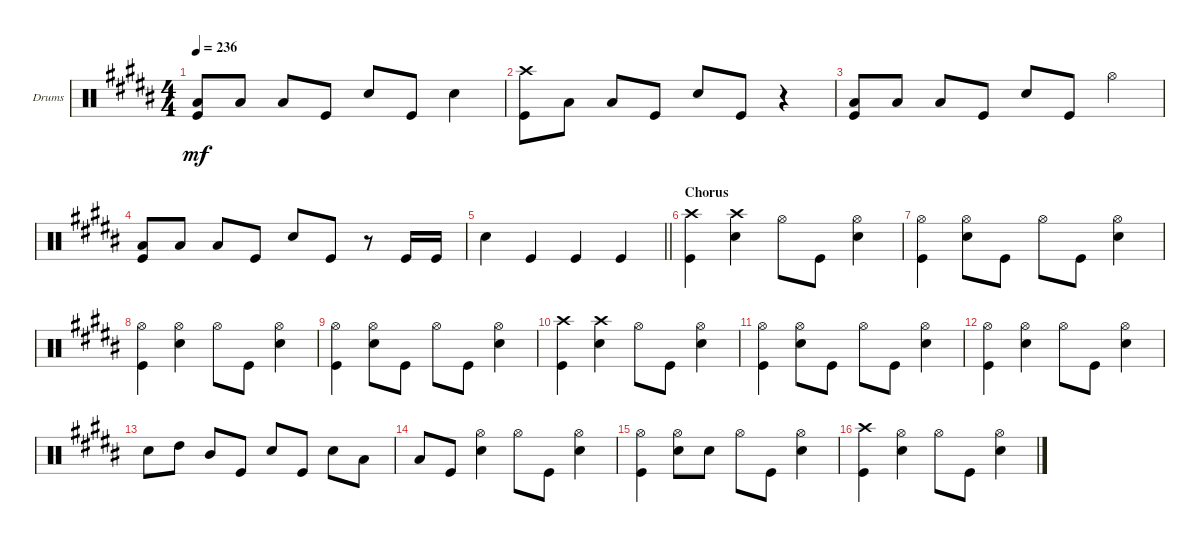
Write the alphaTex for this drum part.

\defaultSystemsLayout 4
\bracketExtendMode groupsimilarinstruments
\firstSystemTrackNameOrientation horizontal
\otherSystemsTrackNameOrientation horizontal
\track ("Drums" "Drums") {instrument percussion}
\staff {score}
\articulation defaults
\ts (4 4)
\tempo 236
\clef neutral
\ks b
("Kick (hit)" "Low Tom (hit)").8{dy mf} "Low Tom (hit)".8 "Low Tom (hit)".8 "Kick (hit)".8 "Snare (hit) 2".8 "Kick (hit)".8 "Snare (hit) 2".4 |
("Kick (hit)" "Crash high (hit)").8 "Low Tom (hit)".8 "Low Tom (hit)".8 "Kick (hit)".8 "Snare (hit) 2".8 "Kick (hit)".8 r.4 |
("Kick (hit)" "Low Tom (hit)").8 "Low Tom (hit)".8 "Low Tom (hit)".8 "Kick (hit)".8 "Snare (hit) 2".8 "Kick (hit)".8 "Hi-Hat (open)".4 |
("Kick (hit)" "Low Tom (hit)").8 "Low Tom (hit)".8 "Low Tom (hit)".8 "Kick (hit)".8 "Snare (hit) 2".8 "Kick (hit)".8 r.8 "Kick (hit)".16 "Kick (hit)".16 |
\barLineRight lightlight "Snare (hit) 2".4 "Kick (hit)".4 "Kick (hit)".4 "Kick (hit)".4
|
\section ("" "Chorus")
("Kick (hit)" "Crash high (hit)").4 ("Crash high (hit)" "Snare (hit) 2").4 "Hi-Hat (open)".8 "Kick (hit)".8 ("Snare (hit) 2" "Hi-Hat (open)").4 |
("Kick (hit)" "Hi-Hat (open)").4 ("Snare (hit) 2" "Hi-Hat (open)").8 "Kick (hit)".8 "Hi-Hat (open)".8 "Kick (hit)".8 ("Snare (hit) 2" "Hi-Hat (open)").4 |
("Kick (hit)" "Hi-Hat (open)").4 ("Snare (hit) 2" "Hi-Hat (open)").4 "Hi-Hat (open)".8 "Kick (hit)".8 ("Snare (hit) 2" "Hi-Hat (open)").4 |
("Kick (hit)" "Hi-Hat (open)").4 ("Snare (hit) 2" "Hi-Hat (open)").8 "Kick (hit)".8 "Hi-Hat (open)".8 "Kick (hit)".8 ("Snare (hit) 2" "Hi-Hat (open)").4 |
("Kick (hit)" "Crash high (hit)").4 ("Crash high (hit)" "Snare (hit) 2").4 "Hi-Hat (open)".8 "Kick (hit)".8 ("Snare (hit) 2" "Hi-Hat (open)").4 |
("Kick (hit)" "Hi-Hat (open)").4 ("Snare (hit) 2" "Hi-Hat (open)").8 "Kick (hit)".8 "Hi-Hat (open)".8 "Kick (hit)".8 ("Snare (hit) 2" "Hi-Hat (open)").4 |
("Kick (hit)" "Hi-Hat (open)").4 ("Snare (hit) 2" "Hi-Hat (open)").4 "Hi-Hat (open)".8 "Kick (hit)".8 ("Snare (hit) 2" "Hi-Hat (open)").4 |
"Snare (hit) 2".8 "High Tom (hit)".8 "Mid Tom (hit)".8 "Kick (hit)".8 "Snare (hit) 2".8 "Kick (hit)".8 "Snare (hit) 2".8 "Low Tom (hit)".8 |
"Low Tom (hit)".8 "Kick (hit)".8 ("Snare (hit) 2" "Hi-Hat (open)").4 "Hi-Hat (open)".8 "Kick (hit)".8 ("Snare (hit) 2" "Hi-Hat (open)").4 |
("Kick (hit)" "Hi-Hat (open)").4 ("Hi-Hat (open)" "Snare (hit) 2").8 "Snare (hit) 2".8 "Hi-Hat (open)".8 "Kick (hit)".8 ("Snare (hit) 2" "Hi-Hat (open)").4 |
("Kick (hit)" "Crash high (hit)").4 ("Snare (hit) 2" "Hi-Hat (open)").4 "Hi-Hat (open)".8 "Kick (hit)".8 ("Snare (hit) 2" "Hi-Hat (open)").4
